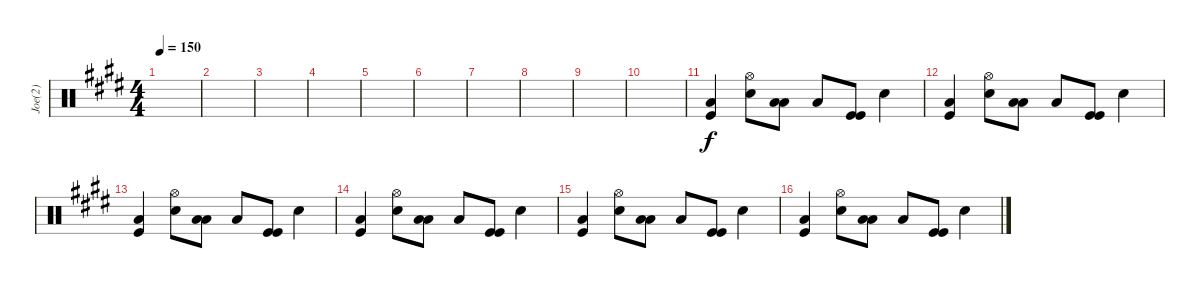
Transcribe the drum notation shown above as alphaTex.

\track ("Joe(2)" "Joe(2)") {instrument percussion}
\staff {score}
\articulation defaults
\ts (4 4)
\tempo 150
\clef neutral
\ks c#minor
|
|
|
|
|
|
|
|
|
|
("Kick (hit)" "Low Floor Tom (hit)").4 ("Snare (hit) 2" "Hi-Hat (open)").8 ("Low Tom (hit)" "Low Floor Tom (hit)").8 "Low Floor Tom (hit)".8 ("Kick (hit)" "Kick (hit)").8 "Snare (hit) 2".4 |
("Kick (hit)" "Low Floor Tom (hit)").4 ("Snare (hit) 2" "Hi-Hat (open)").8 ("Low Tom (hit)" "Low Floor Tom (hit)").8 "Low Floor Tom (hit)".8 ("Kick (hit)" "Kick (hit)").8 "Snare (hit) 2".4 |
("Kick (hit)" "Low Floor Tom (hit)").4 ("Snare (hit) 2" "Hi-Hat (open)").8 ("Low Tom (hit)" "Low Floor Tom (hit)").8 "Low Floor Tom (hit)".8 ("Kick (hit)" "Kick (hit)").8 "Snare (hit) 2".4 |
("Kick (hit)" "Low Floor Tom (hit)").4 ("Snare (hit) 2" "Hi-Hat (open)").8 ("Low Tom (hit)" "Low Floor Tom (hit)").8 "Low Floor Tom (hit)".8 ("Kick (hit)" "Kick (hit)").8 "Snare (hit) 2".4 |
("Kick (hit)" "Low Floor Tom (hit)").4 ("Snare (hit) 2" "Hi-Hat (open)").8 ("Low Tom (hit)" "Low Floor Tom (hit)").8 "Low Floor Tom (hit)".8 ("Kick (hit)" "Kick (hit)").8 "Snare (hit) 2".4 |
("Kick (hit)" "Low Floor Tom (hit)").4 ("Snare (hit) 2" "Hi-Hat (open)").8 ("Low Tom (hit)" "Low Floor Tom (hit)").8 "Low Floor Tom (hit)".8 ("Kick (hit)" "Kick (hit)").8 "Snare (hit) 2".4
